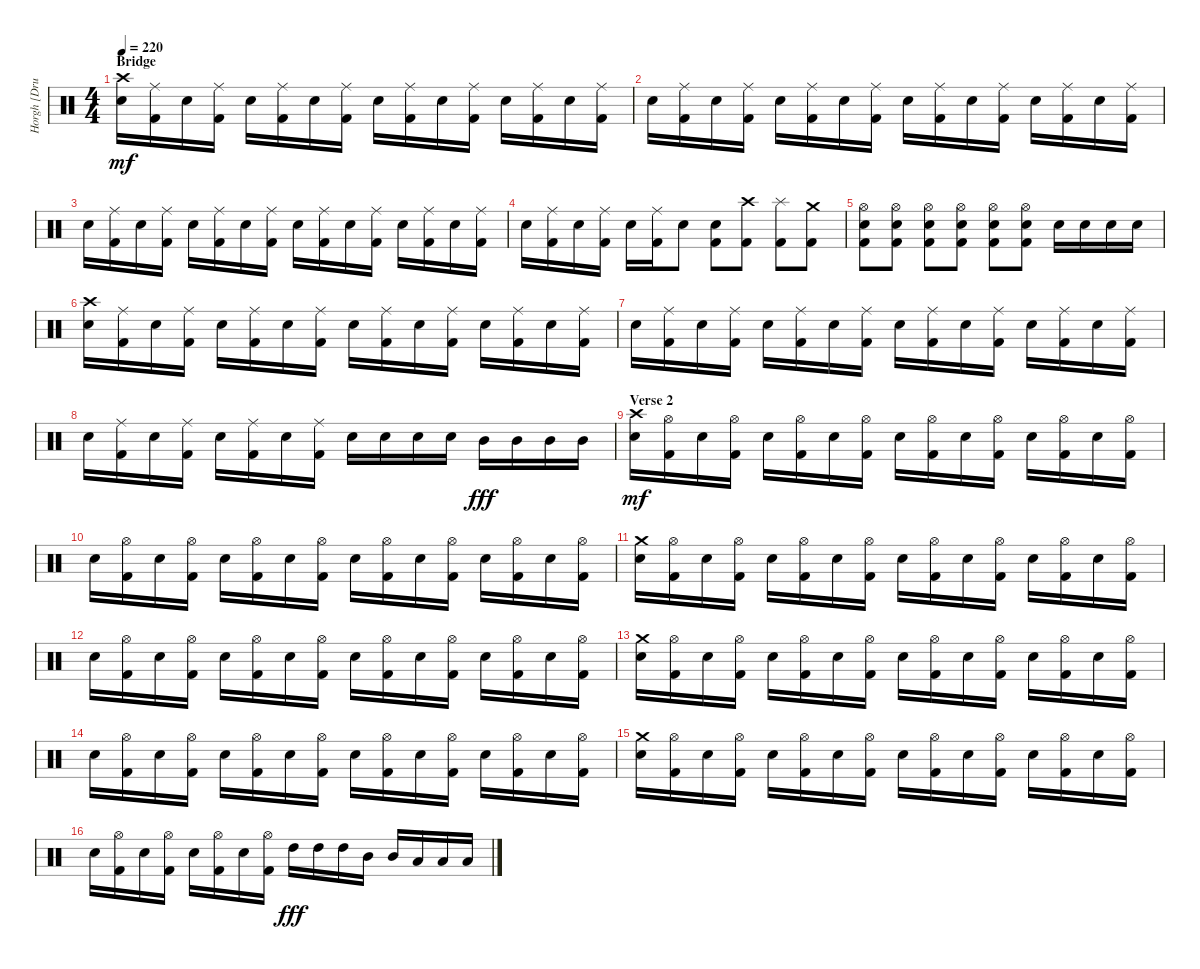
\track ("Horgh [Drums]" "Horgh [Dru") {instrument percussion}
\staff {score}
\articulation defaults
\ts (4 4)
\section ("" "Bridge")
\tempo 220
\clef neutral
\ks c
("Crash high (hit)" "Electric Snare (hit)").16{dy mf} ("Ride (middle)" "Kick (hit) 2").16 "Electric Snare (hit)".16 ("Ride (middle)" "Kick (hit) 2").16 "Electric Snare (hit)".16 ("Ride (middle)" "Kick (hit) 2").16 "Electric Snare (hit)".16 ("Ride (middle)" "Kick (hit) 2").16 "Electric Snare (hit)".16 ("Ride (middle)" "Kick (hit) 2").16 "Electric Snare (hit)".16 ("Ride (middle)" "Kick (hit) 2").16 "Electric Snare (hit)".16 ("Ride (middle)" "Kick (hit) 2").16 "Electric Snare (hit)".16 ("Ride (middle)" "Kick (hit) 2").16 |
"Electric Snare (hit)".16 ("Ride (middle)" "Kick (hit) 2").16 "Electric Snare (hit)".16 ("Ride (middle)" "Kick (hit) 2").16 "Electric Snare (hit)".16 ("Ride (middle)" "Kick (hit) 2").16 "Electric Snare (hit)".16 ("Ride (middle)" "Kick (hit) 2").16 "Electric Snare (hit)".16 ("Ride (middle)" "Kick (hit) 2").16 "Electric Snare (hit)".16 ("Ride (middle)" "Kick (hit) 2").16 "Electric Snare (hit)".16 ("Ride (middle)" "Kick (hit) 2").16 "Electric Snare (hit)".16 ("Ride (middle)" "Kick (hit) 2").16 |
"Electric Snare (hit)".16 ("Ride (middle)" "Kick (hit) 2").16 "Electric Snare (hit)".16 ("Ride (middle)" "Kick (hit) 2").16 "Electric Snare (hit)".16 ("Ride (middle)" "Kick (hit) 2").16 "Electric Snare (hit)".16 ("Ride (middle)" "Kick (hit) 2").16 "Electric Snare (hit)".16 ("Ride (middle)" "Kick (hit) 2").16 "Electric Snare (hit)".16 ("Ride (middle)" "Kick (hit) 2").16 "Electric Snare (hit)".16 ("Ride (middle)" "Kick (hit) 2").16 "Electric Snare (hit)".16 ("Ride (middle)" "Kick (hit) 2").16 |
"Electric Snare (hit)".16 ("Ride (middle)" "Kick (hit) 2").16 "Electric Snare (hit)".16 ("Ride (middle)" "Kick (hit) 2").16 "Electric Snare (hit)".16 ("Ride (middle)" "Kick (hit) 2").16 "Electric Snare (hit)".8 ("Electric Snare (hit)" "Kick (hit) 2").8 ("Crash high (hit)" "Kick (hit) 2").8 ("Splash (hit)" "Kick (hit) 2").8 ("Crash medium (hit)" "Kick (hit) 2").8 |
("Hi-Hat (open)" "Electric Snare (hit)" "Kick (hit) 2").8 ("Hi-Hat (open)" "Electric Snare (hit)" "Kick (hit) 2").8 ("Hi-Hat (open)" "Electric Snare (hit)" "Kick (hit) 2").8 ("Hi-Hat (open)" "Electric Snare (hit)" "Kick (hit) 2").8 ("Hi-Hat (open)" "Electric Snare (hit)" "Kick (hit) 2").8 ("Hi-Hat (open)" "Electric Snare (hit)" "Kick (hit) 2").8 "Electric Snare (hit)".16 "Electric Snare (hit)".16 "Electric Snare (hit)".16 "Electric Snare (hit)".16 |
("Crash high (hit)" "Electric Snare (hit)").16 ("Ride (middle)" "Kick (hit) 2").16 "Electric Snare (hit)".16 ("Ride (middle)" "Kick (hit) 2").16 "Electric Snare (hit)".16 ("Ride (middle)" "Kick (hit) 2").16 "Electric Snare (hit)".16 ("Ride (middle)" "Kick (hit) 2").16 "Electric Snare (hit)".16 ("Ride (middle)" "Kick (hit) 2").16 "Electric Snare (hit)".16 ("Ride (middle)" "Kick (hit) 2").16 "Electric Snare (hit)".16 ("Ride (middle)" "Kick (hit) 2").16 "Electric Snare (hit)".16 ("Ride (middle)" "Kick (hit) 2").16 |
"Electric Snare (hit)".16 ("Ride (middle)" "Kick (hit) 2").16 "Electric Snare (hit)".16 ("Ride (middle)" "Kick (hit) 2").16 "Electric Snare (hit)".16 ("Ride (middle)" "Kick (hit) 2").16 "Electric Snare (hit)".16 ("Ride (middle)" "Kick (hit) 2").16 "Electric Snare (hit)".16 ("Ride (middle)" "Kick (hit) 2").16 "Electric Snare (hit)".16 ("Ride (middle)" "Kick (hit) 2").16 "Electric Snare (hit)".16 ("Ride (middle)" "Kick (hit) 2").16 "Electric Snare (hit)".16 ("Ride (middle)" "Kick (hit) 2").16 |
"Electric Snare (hit)".16 ("Ride (middle)" "Kick (hit) 2").16 "Electric Snare (hit)".16 ("Ride (middle)" "Kick (hit) 2").16 "Electric Snare (hit)".16 ("Ride (middle)" "Kick (hit) 2").16 "Electric Snare (hit)".16 ("Ride (middle)" "Kick (hit) 2").16 "Electric Snare (hit)".16 "Electric Snare (hit)".16 "Electric Snare (hit)".16 "Electric Snare (hit)".16 "Mid Tom (hit)".16{dy fff} "Mid Tom (hit)".16 "Mid Tom (hit)".16 "Mid Tom (hit)".16 |
\section ("" "Verse 2")
("Crash high (hit)" "Electric Snare (hit)").16{dy mf} ("Hi-Hat (open)" "Kick (hit) 2").16 "Electric Snare (hit)".16 ("Hi-Hat (open)" "Kick (hit) 2").16 "Electric Snare (hit)".16 ("Hi-Hat (open)" "Kick (hit) 2").16 "Electric Snare (hit)".16 ("Hi-Hat (open)" "Kick (hit) 2").16 "Electric Snare (hit)".16 ("Hi-Hat (open)" "Kick (hit) 2").16 "Electric Snare (hit)".16 ("Hi-Hat (open)" "Kick (hit) 2").16 "Electric Snare (hit)".16 ("Hi-Hat (open)" "Kick (hit) 2").16 "Electric Snare (hit)".16 ("Hi-Hat (open)" "Kick (hit) 2").16 |
"Electric Snare (hit)".16 ("Hi-Hat (open)" "Kick (hit) 2").16 "Electric Snare (hit)".16 ("Hi-Hat (open)" "Kick (hit) 2").16 "Electric Snare (hit)".16 ("Hi-Hat (open)" "Kick (hit) 2").16 "Electric Snare (hit)".16 ("Hi-Hat (open)" "Kick (hit) 2").16 "Electric Snare (hit)".16 ("Hi-Hat (open)" "Kick (hit) 2").16 "Electric Snare (hit)".16 ("Hi-Hat (open)" "Kick (hit) 2").16 "Electric Snare (hit)".16 ("Hi-Hat (open)" "Kick (hit) 2").16 "Electric Snare (hit)".16 ("Hi-Hat (open)" "Kick (hit) 2").16 |
("Crash medium (hit)" "Electric Snare (hit)").16 ("Hi-Hat (open)" "Kick (hit) 2").16 "Electric Snare (hit)".16 ("Hi-Hat (open)" "Kick (hit) 2").16 "Electric Snare (hit)".16 ("Hi-Hat (open)" "Kick (hit) 2").16 "Electric Snare (hit)".16 ("Hi-Hat (open)" "Kick (hit) 2").16 "Electric Snare (hit)".16 ("Hi-Hat (open)" "Kick (hit) 2").16 "Electric Snare (hit)".16 ("Hi-Hat (open)" "Kick (hit) 2").16 "Electric Snare (hit)".16 ("Hi-Hat (open)" "Kick (hit) 2").16 "Electric Snare (hit)".16 ("Hi-Hat (open)" "Kick (hit) 2").16 |
"Electric Snare (hit)".16 ("Hi-Hat (open)" "Kick (hit) 2").16 "Electric Snare (hit)".16 ("Hi-Hat (open)" "Kick (hit) 2").16 "Electric Snare (hit)".16 ("Hi-Hat (open)" "Kick (hit) 2").16 "Electric Snare (hit)".16 ("Hi-Hat (open)" "Kick (hit) 2").16 "Electric Snare (hit)".16 ("Hi-Hat (open)" "Kick (hit) 2").16 "Electric Snare (hit)".16 ("Hi-Hat (open)" "Kick (hit) 2").16 "Electric Snare (hit)".16 ("Hi-Hat (open)" "Kick (hit) 2").16 "Electric Snare (hit)".16 ("Hi-Hat (open)" "Kick (hit) 2").16 |
("Crash medium (hit)" "Electric Snare (hit)").16 ("Hi-Hat (open)" "Kick (hit) 2").16 "Electric Snare (hit)".16 ("Hi-Hat (open)" "Kick (hit) 2").16 "Electric Snare (hit)".16 ("Hi-Hat (open)" "Kick (hit) 2").16 "Electric Snare (hit)".16 ("Hi-Hat (open)" "Kick (hit) 2").16 "Electric Snare (hit)".16 ("Hi-Hat (open)" "Kick (hit) 2").16 "Electric Snare (hit)".16 ("Hi-Hat (open)" "Kick (hit) 2").16 "Electric Snare (hit)".16 ("Hi-Hat (open)" "Kick (hit) 2").16 "Electric Snare (hit)".16 ("Hi-Hat (open)" "Kick (hit) 2").16 |
"Electric Snare (hit)".16 ("Hi-Hat (open)" "Kick (hit) 2").16 "Electric Snare (hit)".16 ("Hi-Hat (open)" "Kick (hit) 2").16 "Electric Snare (hit)".16 ("Hi-Hat (open)" "Kick (hit) 2").16 "Electric Snare (hit)".16 ("Hi-Hat (open)" "Kick (hit) 2").16 "Electric Snare (hit)".16 ("Hi-Hat (open)" "Kick (hit) 2").16 "Electric Snare (hit)".16 ("Hi-Hat (open)" "Kick (hit) 2").16 "Electric Snare (hit)".16 ("Hi-Hat (open)" "Kick (hit) 2").16 "Electric Snare (hit)".16 ("Hi-Hat (open)" "Kick (hit) 2").16 |
("Crash medium (hit)" "Electric Snare (hit)").16 ("Hi-Hat (open)" "Kick (hit) 2").16 "Electric Snare (hit)".16 ("Hi-Hat (open)" "Kick (hit) 2").16 "Electric Snare (hit)".16 ("Hi-Hat (open)" "Kick (hit) 2").16 "Electric Snare (hit)".16 ("Hi-Hat (open)" "Kick (hit) 2").16 "Electric Snare (hit)".16 ("Hi-Hat (open)" "Kick (hit) 2").16 "Electric Snare (hit)".16 ("Hi-Hat (open)" "Kick (hit) 2").16 "Electric Snare (hit)".16 ("Hi-Hat (open)" "Kick (hit) 2").16 "Electric Snare (hit)".16 ("Hi-Hat (open)" "Kick (hit) 2").16 |
"Electric Snare (hit)".16 ("Hi-Hat (open)" "Kick (hit) 2").16 "Electric Snare (hit)".16 ("Hi-Hat (open)" "Kick (hit) 2").16 "Electric Snare (hit)".16 ("Hi-Hat (open)" "Kick (hit) 2").16 "Electric Snare (hit)".16 ("Hi-Hat (open)" "Kick (hit) 2").16 "High Tom (hit)".16{dy fff} "High Tom (hit)".16 "High Tom (hit)".16 "Mid Tom (hit)".16 "Mid Tom (hit)".16 "Low Tom (hit)".16 "Low Tom (hit)".16 "Low Tom (hit)".16
